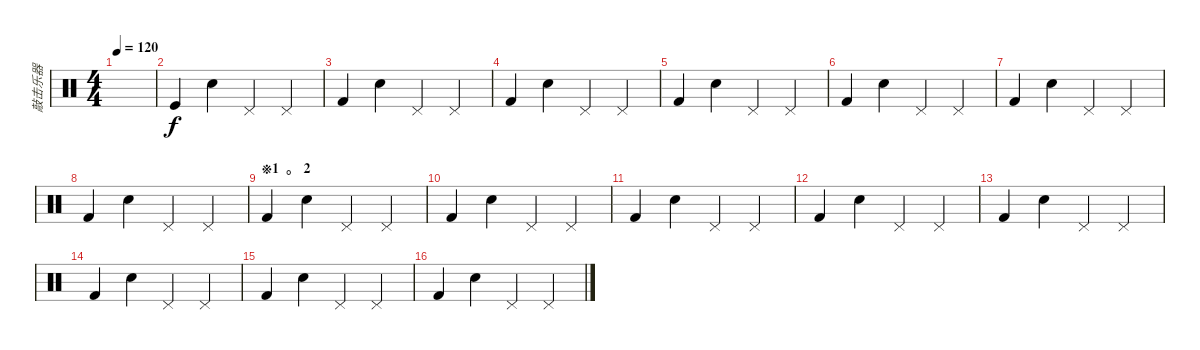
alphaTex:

\track ("敲击乐器" "敲击乐器") {instrument percussion}
\staff {score}
\articulation defaults
\ts (4 4)
\tempo 120
\clef neutral
\ks c
|
"Kick (hit)".4 "Electric Snare (hit)".4 "Pedal Hi-Hat (hit)".4 "Pedal Hi-Hat (hit)".4 |
"Kick (hit) 2".4 "Electric Snare (hit)".4 "Pedal Hi-Hat (hit)".4 "Pedal Hi-Hat (hit)".4 |
"Kick (hit) 2".4 "Electric Snare (hit)".4 "Pedal Hi-Hat (hit)".4 "Pedal Hi-Hat (hit)".4 |
"Kick (hit) 2".4 "Electric Snare (hit)".4 "Pedal Hi-Hat (hit)".4 "Pedal Hi-Hat (hit)".4 |
"Kick (hit) 2".4 "Electric Snare (hit)".4 "Pedal Hi-Hat (hit)".4 "Pedal Hi-Hat (hit)".4 |
"Kick (hit) 2".4 "Electric Snare (hit)".4 "Pedal Hi-Hat (hit)".4 "Pedal Hi-Hat (hit)".4 |
"Kick (hit) 2".4 "Electric Snare (hit)".4 "Pedal Hi-Hat (hit)".4 "Pedal Hi-Hat (hit)".4 |
\section ("" "※1  。 2")
"Kick (hit) 2".4 "Electric Snare (hit)".4 "Pedal Hi-Hat (hit)".4 "Pedal Hi-Hat (hit)".4 |
"Kick (hit) 2".4 "Electric Snare (hit)".4 "Pedal Hi-Hat (hit)".4 "Pedal Hi-Hat (hit)".4 |
"Kick (hit) 2".4 "Electric Snare (hit)".4 "Pedal Hi-Hat (hit)".4 "Pedal Hi-Hat (hit)".4 |
"Kick (hit) 2".4 "Electric Snare (hit)".4 "Pedal Hi-Hat (hit)".4 "Pedal Hi-Hat (hit)".4 |
"Kick (hit) 2".4 "Electric Snare (hit)".4 "Pedal Hi-Hat (hit)".4 "Pedal Hi-Hat (hit)".4 |
"Kick (hit) 2".4 "Electric Snare (hit)".4 "Pedal Hi-Hat (hit)".4 "Pedal Hi-Hat (hit)".4 |
"Kick (hit) 2".4 "Electric Snare (hit)".4 "Pedal Hi-Hat (hit)".4 "Pedal Hi-Hat (hit)".4 |
"Kick (hit) 2".4 "Electric Snare (hit)".4 "Pedal Hi-Hat (hit)".4 "Pedal Hi-Hat (hit)".4
